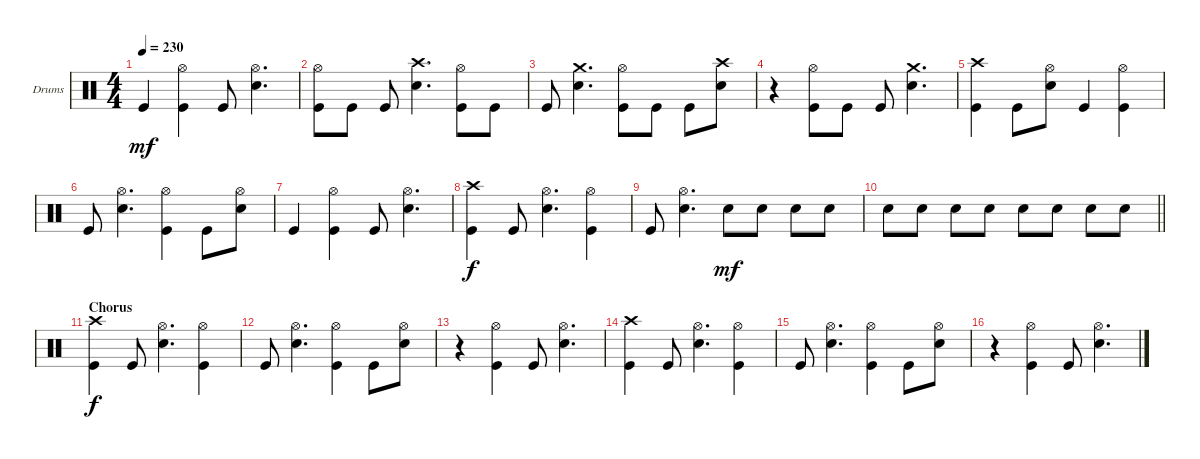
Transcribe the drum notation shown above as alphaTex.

\bracketExtendMode groupsimilarinstruments
\firstSystemTrackNameOrientation horizontal
\otherSystemsTrackNameOrientation horizontal
\track ("Drumkit" "Drums") {instrument percussion}
\staff {score}
\articulation defaults
\ts (4 4)
\tempo 230
\clef neutral
\ks c "Kick (hit)".4{dy mf}
("Hi-Hat (open)" "Kick (hit)").4 "Kick (hit)".8 ("Hi-Hat (open)" "Snare (hit) 2").4{d} |
("Hi-Hat (open)" "Kick (hit)").8 "Kick (hit)".8 "Kick (hit)".8 ("Crash high (hit)" "Snare (hit) 2").4{d} ("Hi-Hat (open)" "Kick (hit)").8 "Kick (hit)".8 |
"Kick (hit)".8 ("Crash medium (hit)" "Snare (hit) 2").4{d} ("Hi-Hat (open)" "Kick (hit)").8 "Kick (hit)".8 "Kick (hit)".8 ("Crash high (hit)" "Snare (hit) 2").8 |
r.4 ("Hi-Hat (open)" "Kick (hit)").8 "Kick (hit)".8 "Kick (hit)".8 ("Crash medium (hit)" "Snare (hit) 2").4{d} |
("Crash high (hit)" "Kick (hit)").4 "Kick (hit)".8 ("Hi-Hat (open)" "Snare (hit) 2").8 "Kick (hit)".4 ("Hi-Hat (open)" "Kick (hit)").4 |
"Kick (hit)".8 ("Hi-Hat (open)" "Snare (hit) 2").4{d} ("Hi-Hat (open)" "Kick (hit)").4 "Kick (hit)".8 ("Hi-Hat (open)" "Snare (hit) 2").8 |
"Kick (hit)".4 ("Hi-Hat (open)" "Kick (hit)").4 "Kick (hit)".8 ("Hi-Hat (open)" "Snare (hit) 2").4{d} |
("Crash high (hit)" "Kick (hit)").4{dy f} "Kick (hit)".8 ("Hi-Hat (open)" "Snare (hit) 2").4{d} ("Hi-Hat (open)" "Kick (hit)").4 |
"Kick (hit)".8 ("Hi-Hat (open)" "Snare (hit) 2").4{d} "Snare (hit) 2".8{dy mf} "Snare (hit) 2".8 "Snare (hit) 2".8 "Snare (hit) 2".8 |
\barLineRight lightlight "Snare (hit) 2".8 "Snare (hit) 2".8 "Snare (hit) 2".8 "Snare (hit) 2".8 "Snare (hit) 2".8 "Snare (hit) 2".8 "Snare (hit) 2".8 "Snare (hit) 2".8
|
\section ("" "Chorus")
("Crash high (hit)" "Kick (hit)").4{dy f} "Kick (hit)".8 ("Hi-Hat (open)" "Snare (hit) 2").4{d} ("Hi-Hat (open)" "Kick (hit)").4 |
"Kick (hit)".8 ("Hi-Hat (open)" "Snare (hit) 2").4{d} ("Hi-Hat (open)" "Kick (hit)").4 "Kick (hit)".8 ("Hi-Hat (open)" "Snare (hit) 2").8 |
r.4 ("Hi-Hat (open)" "Kick (hit)").4 "Kick (hit)".8 ("Hi-Hat (open)" "Snare (hit) 2").4{d} |
("Crash high (hit)" "Kick (hit)").4 "Kick (hit)".8 ("Hi-Hat (open)" "Snare (hit) 2").4{d} ("Hi-Hat (open)" "Kick (hit)").4 |
"Kick (hit)".8 ("Hi-Hat (open)" "Snare (hit) 2").4{d} ("Hi-Hat (open)" "Kick (hit)").4 "Kick (hit)".8 ("Hi-Hat (open)" "Snare (hit) 2").8 |
r.4 ("Hi-Hat (open)" "Kick (hit)").4 "Kick (hit)".8 ("Hi-Hat (open)" "Snare (hit) 2").4{d}
